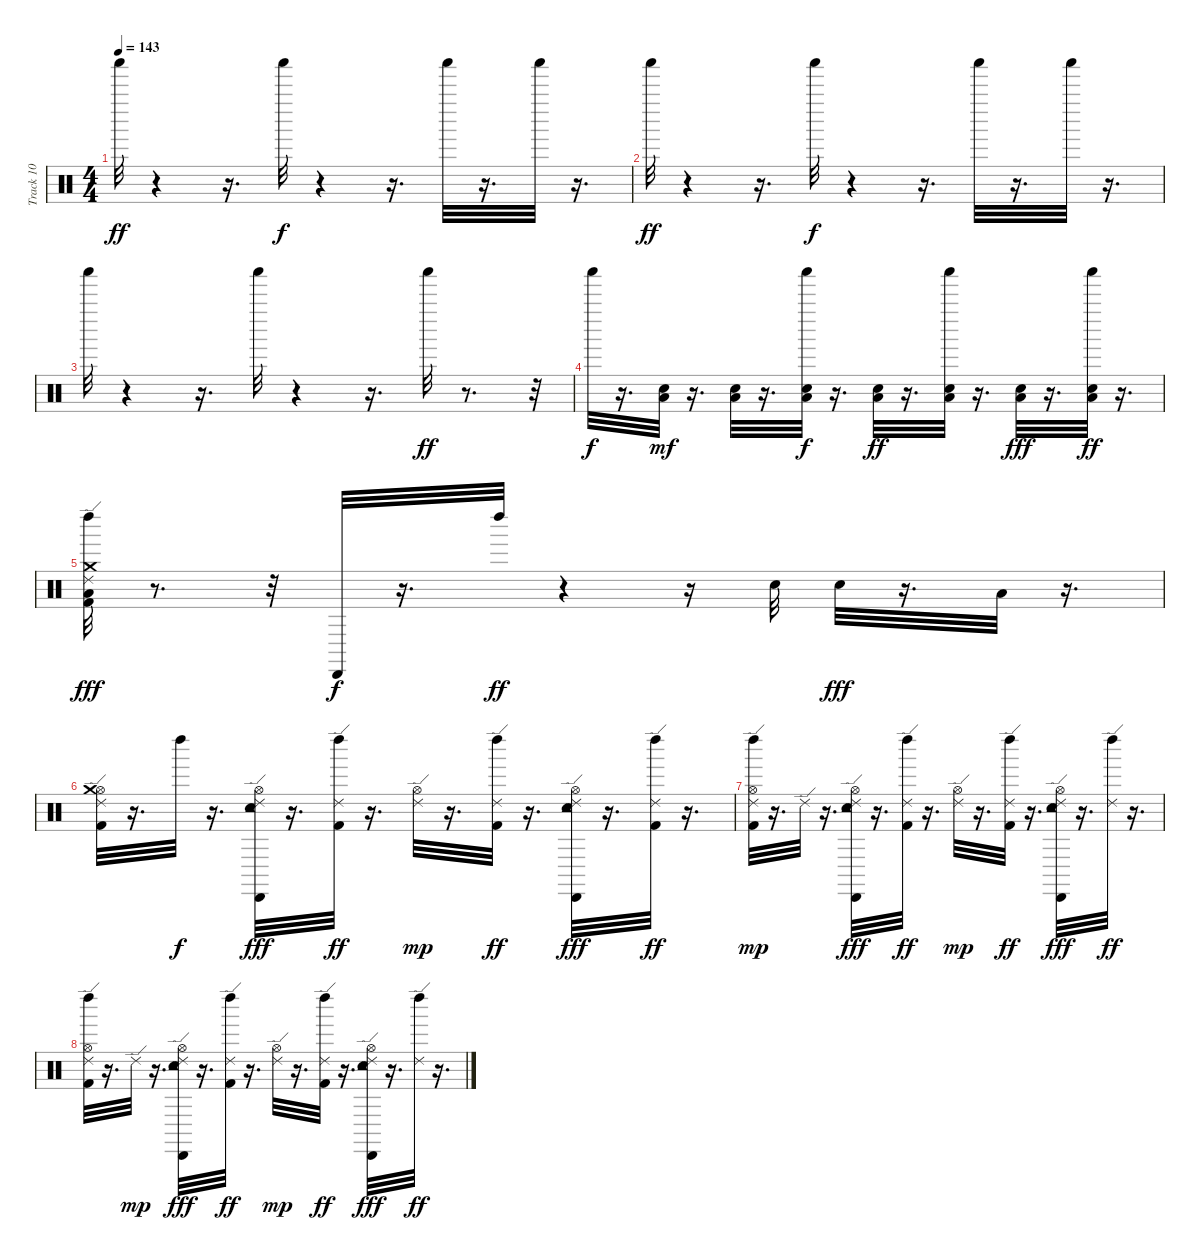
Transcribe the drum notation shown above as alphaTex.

\track ("Track 10" "Track 10") {instrument percussion}
\staff {score}
\articulation defaults
\ts (4 4)
\tempo 143
\clef neutral
\ks c "Shaker (hit)".32{dy ff}
r.4 r.16{d} "Shaker (hit)".32{dy f} r.4 r.16{d} "Shaker (hit)".32 r.16{d} "Shaker (hit)".32 r.16{d} |
"Shaker (hit)".32{dy ff} r.4 r.16{d} "Shaker (hit)".32{dy f} r.4 r.16{d} "Shaker (hit)".32 r.16{d} "Shaker (hit)".32 r.16{d} |
"Shaker (hit)".32 r.4 r.16{d} "Shaker (hit)".32 r.4 r.16{d} "Shaker (hit)".32{dy ff} r.8{d} r.32 |
"Shaker (hit)".32{dy f} r.16{d} ("Snare (hit) 2" "Low Floor Tom (hit)").32{dy mf} r.16{d} ("Snare (hit) 2" "Low Floor Tom (hit)").32 r.16{d} ("Snare (hit) 2" "Low Floor Tom (hit)" "Shaker (hit)").32{dy f} r.16{d} ("Snare (hit) 2" "Low Floor Tom (hit)").32{dy ff} r.16{d} ("Snare (hit) 2" "Low Floor Tom (hit)" "Shaker (hit)").32 r.16{d} ("Snare (hit) 2" "Low Floor Tom (hit)").32{dy fff} r.16{d} ("Snare (hit) 2" "Low Floor Tom (hit)" "Shaker (hit)").32{dy ff} r.16{d} |
("Kick (hit) 2" "Crash medium (hit)" "Ride (edge) 2" "Left Maraca (hit)" "Low Floor Tom (hit)").32{dy fff} r.8{d} r.32 "Cabasa (hit)".32{dy f} r.16{d} "Left Maraca (hit)".32{dy ff} r.4 r.16 "Snare (hit) 2".32 "Snare (hit) 2".32{dy fff} r.16{d} "Low Floor Tom (hit)".32 r.16{d} |
("Kick (hit) 2" "Hi-Hat (open)" "Ride (edge) 2" "Crash medium (hit)").32 r.16{d} "Left Maraca (hit)".32{dy f} r.16{d} ("Snare (hit) 2" "Hi-Hat (open)" "Ride (edge) 2" "Cabasa (hit)" "Tambourine (hit)").32{dy fff} r.16{d} ("Kick (hit) 2" "Ride (edge) 2" "Left Maraca (hit)").32{dy ff} r.16{d} ("Hi-Hat (open)" "Ride (edge) 2").32{dy mp} r.16{d} ("Kick (hit) 2" "Ride (edge) 2" "Left Maraca (hit)").32{dy ff} r.16{d} ("Snare (hit) 2" "Hi-Hat (open)" "Ride (edge) 2" "Cabasa (hit)" "Tambourine (hit)").32{dy fff} r.16{d} ("Kick (hit) 2" "Ride (edge) 2" "Left Maraca (hit)").32{dy ff} r.16{d} |
("Kick (hit) 2" "Ride (edge) 2" "Hi-Hat (open)" "Left Maraca (hit)").32{dy mp} r.16{d} "Ride (edge) 2".32 r.16{d} ("Snare (hit) 2" "Hi-Hat (open)" "Ride (edge) 2" "Cabasa (hit)" "Tambourine (hit)").32{dy fff} r.16{d} ("Kick (hit) 2" "Ride (edge) 2" "Left Maraca (hit)").32{dy ff} r.16{d} ("Hi-Hat (open)" "Ride (edge) 2").32{dy mp} r.16{d} ("Kick (hit) 2" "Ride (edge) 2" "Left Maraca (hit)").32{dy ff} r.16{d} ("Snare (hit) 2" "Ride (edge) 2" "Hi-Hat (open)" "Cabasa (hit)" "Tambourine (hit)").32{dy fff} r.16{d} ("Ride (edge) 2" "Left Maraca (hit)").32{dy ff} r.16{d} |
("Kick (hit) 2" "Ride (edge) 2" "Hi-Hat (open)" "Left Maraca (hit)").32 r.16{d} "Ride (edge) 2".32{dy mp} r.16{d} ("Snare (hit) 2" "Hi-Hat (open)" "Ride (edge) 2" "Cabasa (hit)" "Tambourine (hit)").32{dy fff} r.16{d} ("Kick (hit) 2" "Ride (edge) 2" "Left Maraca (hit)").32{dy ff} r.16{d} ("Hi-Hat (open)" "Ride (edge) 2").32{dy mp} r.16{d} ("Kick (hit) 2" "Ride (edge) 2" "Left Maraca (hit)").32{dy ff} r.16{d} ("Snare (hit) 2" "Ride (edge) 2" "Hi-Hat (open)" "Cabasa (hit)" "Tambourine (hit)").32{dy fff} r.16{d} ("Ride (edge) 2" "Left Maraca (hit)").32{dy ff} r.16{d}
